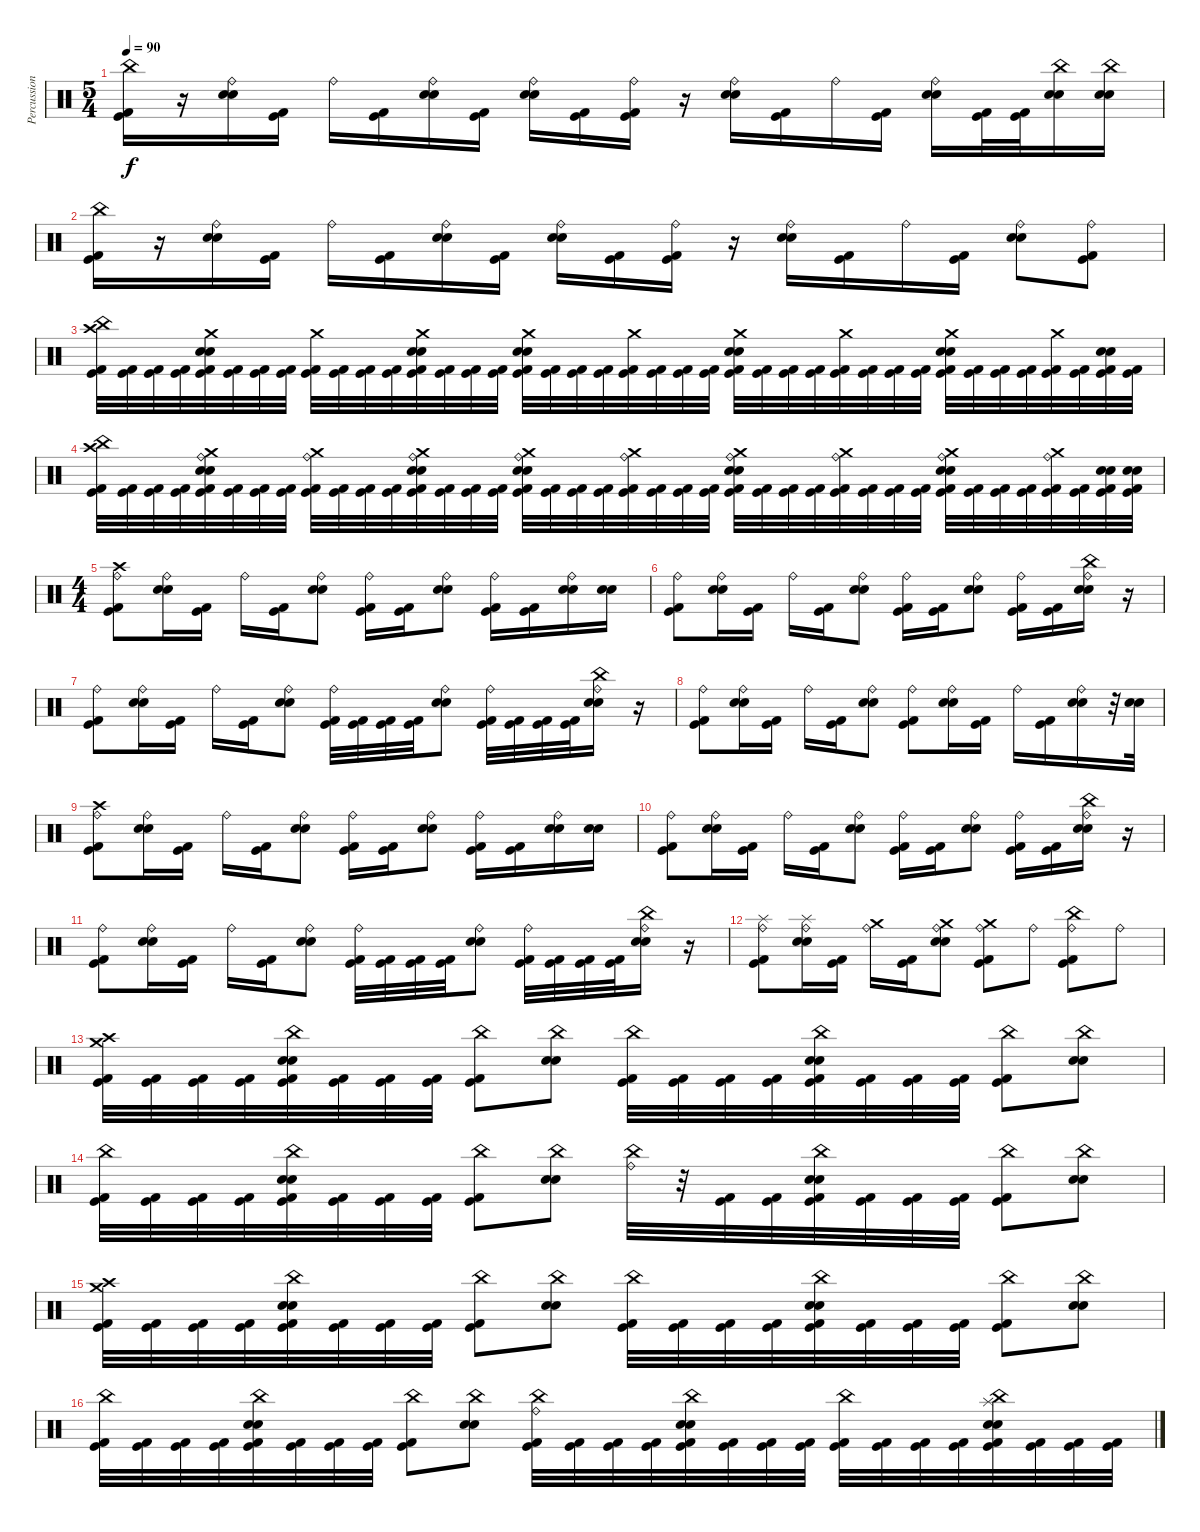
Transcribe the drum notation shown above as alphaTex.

\track ("Percussion" "Percussion") {instrument percussion}
\staff {score}
\articulation defaults
\ts (5 4)
\tempo 90
\clef neutral
\ks c
("China (hit)" "Kick (hit)" "Kick (hit) 2").16{dy f} r.16 ("Ride (bell)" "Electric Snare (hit)" "Snare (hit) 2").16 ("Kick (hit)" "Kick (hit) 2").16 "Ride (bell)".16 ("Kick (hit)" "Kick (hit) 2").16 ("Ride (bell)" "Electric Snare (hit)" "Snare (hit) 2").16 ("Kick (hit)" "Kick (hit) 2").16 ("Ride (bell)" "Electric Snare (hit)" "Snare (hit) 2").16 ("Kick (hit)" "Kick (hit) 2").16 ("Ride (bell)" "Kick (hit)" "Kick (hit) 2").16 r.16 ("Ride (bell)" "Electric Snare (hit)" "Snare (hit) 2").16 ("Kick (hit)" "Kick (hit) 2").16 "Ride (bell)".16 ("Kick (hit)" "Kick (hit) 2").16 ("Ride (bell)" "Electric Snare (hit)" "Snare (hit) 2").16 ("Kick (hit)" "Kick (hit) 2").32 ("Kick (hit)" "Kick (hit) 2").32 ("China (hit)" "Electric Snare (hit)" "Snare (hit) 2").16 ("China (hit)" "Electric Snare (hit)" "Snare (hit) 2").16 |
("China (hit)" "Kick (hit)" "Kick (hit) 2").16 r.16 ("Ride (bell)" "Electric Snare (hit)" "Snare (hit) 2").16 ("Kick (hit)" "Kick (hit) 2").16 "Ride (bell)".16 ("Kick (hit)" "Kick (hit) 2").16 ("Ride (bell)" "Electric Snare (hit)" "Snare (hit) 2").16 ("Kick (hit)" "Kick (hit) 2").16 ("Ride (bell)" "Electric Snare (hit)" "Snare (hit) 2").16 ("Kick (hit)" "Kick (hit) 2").16 ("Ride (bell)" "Kick (hit)" "Kick (hit) 2").16 r.16 ("Ride (bell)" "Electric Snare (hit)" "Snare (hit) 2").16 ("Kick (hit)" "Kick (hit) 2").16 "Ride (bell)".16 ("Kick (hit)" "Kick (hit) 2").16 ("Ride (bell)" "Electric Snare (hit)" "Snare (hit) 2").8 ("Ride (bell)" "Kick (hit)" "Kick (hit) 2").8 |
("Crash high (hit)" "China (hit)" "Kick (hit)" "Kick (hit) 2").32 ("Kick (hit)" "Kick (hit) 2").32 ("Kick (hit)" "Kick (hit) 2").32 ("Kick (hit)" "Kick (hit) 2").32 ("Crash medium (hit)" "Electric Snare (hit)" "Snare (hit) 2" "Kick (hit)" "Kick (hit) 2").32 ("Kick (hit)" "Kick (hit) 2").32 ("Kick (hit)" "Kick (hit) 2").32 ("Kick (hit)" "Kick (hit) 2").32 ("Crash medium (hit)" "Kick (hit)" "Kick (hit) 2").32 ("Kick (hit)" "Kick (hit) 2").32 ("Kick (hit)" "Kick (hit) 2").32 ("Kick (hit)" "Kick (hit) 2").32 ("Crash medium (hit)" "Electric Snare (hit)" "Snare (hit) 2" "Kick (hit)" "Kick (hit) 2").32 ("Kick (hit)" "Kick (hit) 2").32 ("Kick (hit)" "Kick (hit) 2").32 ("Kick (hit)" "Kick (hit) 2").32 ("Crash medium (hit)" "Electric Snare (hit)" "Snare (hit) 2" "Kick (hit)" "Kick (hit) 2").32 ("Kick (hit)" "Kick (hit) 2").32 ("Kick (hit)" "Kick (hit) 2").32 ("Kick (hit)" "Kick (hit) 2").32 ("Crash medium (hit)" "Kick (hit)" "Kick (hit) 2").32 ("Kick (hit)" "Kick (hit) 2").32 ("Kick (hit)" "Kick (hit) 2").32 ("Kick (hit)" "Kick (hit) 2").32 ("Crash medium (hit)" "Electric Snare (hit)" "Snare (hit) 2" "Kick (hit)" "Kick (hit) 2").32 ("Kick (hit)" "Kick (hit) 2").32 ("Kick (hit)" "Kick (hit) 2").32 ("Kick (hit)" "Kick (hit) 2").32 ("Crash medium (hit)" "Kick (hit)" "Kick (hit) 2").32 ("Kick (hit)" "Kick (hit) 2").32 ("Kick (hit)" "Kick (hit) 2").32 ("Kick (hit)" "Kick (hit) 2").32 ("Crash medium (hit)" "Electric Snare (hit)" "Snare (hit) 2" "Kick (hit)" "Kick (hit) 2").32 ("Kick (hit)" "Kick (hit) 2").32 ("Kick (hit)" "Kick (hit) 2").32 ("Kick (hit)" "Kick (hit) 2").32 ("Crash medium (hit)" "Kick (hit)" "Kick (hit) 2").32 ("Kick (hit)" "Kick (hit) 2").32 ("Electric Snare (hit)" "Snare (hit) 2" "Kick (hit)" "Kick (hit) 2").32 ("Kick (hit)" "Kick (hit) 2").32 |
("Crash high (hit)" "China (hit)" "Kick (hit)" "Kick (hit) 2").32 ("Kick (hit)" "Kick (hit) 2").32 ("Kick (hit)" "Kick (hit) 2").32 ("Kick (hit)" "Kick (hit) 2").32 ("Ride (bell)" "Crash medium (hit)" "Electric Snare (hit)" "Snare (hit) 2" "Kick (hit)" "Kick (hit) 2").32 ("Kick (hit)" "Kick (hit) 2").32 ("Kick (hit)" "Kick (hit) 2").32 ("Kick (hit)" "Kick (hit) 2").32 ("Ride (bell)" "Crash medium (hit)" "Kick (hit)" "Kick (hit) 2").32 ("Kick (hit)" "Kick (hit) 2").32 ("Kick (hit)" "Kick (hit) 2").32 ("Kick (hit)" "Kick (hit) 2").32 ("Ride (bell)" "Crash medium (hit)" "Electric Snare (hit)" "Snare (hit) 2" "Kick (hit)" "Kick (hit) 2").32 ("Kick (hit)" "Kick (hit) 2").32 ("Kick (hit)" "Kick (hit) 2").32 ("Kick (hit)" "Kick (hit) 2").32 ("Ride (bell)" "Crash medium (hit)" "Electric Snare (hit)" "Snare (hit) 2" "Kick (hit)" "Kick (hit) 2").32 ("Kick (hit)" "Kick (hit) 2").32 ("Kick (hit)" "Kick (hit) 2").32 ("Kick (hit)" "Kick (hit) 2").32 ("Ride (bell)" "Crash medium (hit)" "Kick (hit)" "Kick (hit) 2").32 ("Kick (hit)" "Kick (hit) 2").32 ("Kick (hit)" "Kick (hit) 2").32 ("Kick (hit)" "Kick (hit) 2").32 ("Ride (bell)" "Crash medium (hit)" "Electric Snare (hit)" "Snare (hit) 2" "Kick (hit)" "Kick (hit) 2").32 ("Kick (hit)" "Kick (hit) 2").32 ("Kick (hit)" "Kick (hit) 2").32 ("Kick (hit)" "Kick (hit) 2").32 ("Ride (bell)" "Crash medium (hit)" "Kick (hit)" "Kick (hit) 2").32 ("Kick (hit)" "Kick (hit) 2").32 ("Kick (hit)" "Kick (hit) 2").32 ("Kick (hit)" "Kick (hit) 2").32 ("Ride (bell)" "Crash medium (hit)" "Electric Snare (hit)" "Snare (hit) 2" "Kick (hit)" "Kick (hit) 2").32 ("Kick (hit)" "Kick (hit) 2").32 ("Kick (hit)" "Kick (hit) 2").32 ("Kick (hit)" "Kick (hit) 2").32 ("Ride (bell)" "Crash medium (hit)" "Kick (hit)" "Kick (hit) 2").32 ("Kick (hit)" "Kick (hit) 2").32 ("Electric Snare (hit)" "Snare (hit) 2" "Kick (hit)" "Kick (hit) 2").32 ("Electric Snare (hit)" "Snare (hit) 2" "Kick (hit)" "Kick (hit) 2").32 |
\ts (4 4)
("Crash high (hit)" "Ride (bell)" "Kick (hit)" "Kick (hit) 2").8 ("Ride (bell)" "Electric Snare (hit)" "Snare (hit) 2").16 ("Kick (hit)" "Kick (hit) 2").16 "Ride (bell)".16 ("Kick (hit)" "Kick (hit) 2").16 ("Ride (bell)" "Electric Snare (hit)" "Snare (hit) 2").8 ("Ride (bell)" "Kick (hit)" "Kick (hit) 2").16 ("Kick (hit)" "Kick (hit) 2").16 ("Ride (bell)" "Electric Snare (hit)" "Snare (hit) 2").8 ("Ride (bell)" "Kick (hit)" "Kick (hit) 2").16 ("Kick (hit)" "Kick (hit) 2").16 ("Ride (bell)" "Electric Snare (hit)" "Snare (hit) 2").16 ("Electric Snare (hit)" "Snare (hit) 2").16 |
("Ride (bell)" "Kick (hit)" "Kick (hit) 2").8 ("Ride (bell)" "Electric Snare (hit)" "Snare (hit) 2").16 ("Kick (hit)" "Kick (hit) 2").16 "Ride (bell)".16 ("Kick (hit)" "Kick (hit) 2").16 ("Ride (bell)" "Electric Snare (hit)" "Snare (hit) 2").8 ("Ride (bell)" "Kick (hit)" "Kick (hit) 2").16 ("Kick (hit)" "Kick (hit) 2").16 ("Ride (bell)" "Electric Snare (hit)" "Snare (hit) 2").8 ("Ride (bell)" "Kick (hit)" "Kick (hit) 2").16 ("Kick (hit)" "Kick (hit) 2").16 ("China (hit)" "Ride (bell)" "Electric Snare (hit)" "Snare (hit) 2").16 r.16 |
("Ride (bell)" "Kick (hit)" "Kick (hit) 2").8 ("Ride (bell)" "Electric Snare (hit)" "Snare (hit) 2").16 ("Kick (hit)" "Kick (hit) 2").16 "Ride (bell)".16 ("Kick (hit)" "Kick (hit) 2").16 ("Ride (bell)" "Electric Snare (hit)" "Snare (hit) 2").8 ("Ride (bell)" "Kick (hit)" "Kick (hit) 2").32 ("Kick (hit)" "Kick (hit) 2").32 ("Kick (hit)" "Kick (hit) 2").32 ("Kick (hit)" "Kick (hit) 2").32 ("Ride (bell)" "Electric Snare (hit)" "Snare (hit) 2").8 ("Ride (bell)" "Kick (hit)" "Kick (hit) 2").32 ("Kick (hit)" "Kick (hit) 2").32 ("Kick (hit)" "Kick (hit) 2").32 ("Kick (hit)" "Kick (hit) 2").32 ("China (hit)" "Ride (bell)" "Electric Snare (hit)" "Snare (hit) 2").16 r.16 |
("Ride (bell)" "Kick (hit)" "Kick (hit) 2").8 ("Ride (bell)" "Electric Snare (hit)" "Snare (hit) 2").16 ("Kick (hit)" "Kick (hit) 2").16 "Ride (bell)".16 ("Kick (hit)" "Kick (hit) 2").16 ("Ride (bell)" "Electric Snare (hit)" "Snare (hit) 2").8 ("Ride (bell)" "Kick (hit)" "Kick (hit) 2").8 ("Ride (bell)" "Electric Snare (hit)" "Snare (hit) 2").16 ("Kick (hit)" "Kick (hit) 2").16 "Ride (bell)".16 ("Kick (hit)" "Kick (hit) 2").16 ("Ride (bell)" "Electric Snare (hit)" "Snare (hit) 2").16 r.32 ("Electric Snare (hit)" "Snare (hit) 2").32 |
("Crash high (hit)" "Ride (bell)" "Kick (hit)" "Kick (hit) 2").8 ("Ride (bell)" "Electric Snare (hit)" "Snare (hit) 2").16 ("Kick (hit)" "Kick (hit) 2").16 "Ride (bell)".16 ("Kick (hit)" "Kick (hit) 2").16 ("Ride (bell)" "Electric Snare (hit)" "Snare (hit) 2").8 ("Ride (bell)" "Kick (hit)" "Kick (hit) 2").16 ("Kick (hit)" "Kick (hit) 2").16 ("Ride (bell)" "Electric Snare (hit)" "Snare (hit) 2").8 ("Ride (bell)" "Kick (hit)" "Kick (hit) 2").16 ("Kick (hit)" "Kick (hit) 2").16 ("Ride (bell)" "Electric Snare (hit)" "Snare (hit) 2").16 ("Electric Snare (hit)" "Snare (hit) 2").16 |
("Ride (bell)" "Kick (hit)" "Kick (hit) 2").8 ("Ride (bell)" "Electric Snare (hit)" "Snare (hit) 2").16 ("Kick (hit)" "Kick (hit) 2").16 "Ride (bell)".16 ("Kick (hit)" "Kick (hit) 2").16 ("Ride (bell)" "Electric Snare (hit)" "Snare (hit) 2").8 ("Ride (bell)" "Kick (hit)" "Kick (hit) 2").16 ("Kick (hit)" "Kick (hit) 2").16 ("Ride (bell)" "Electric Snare (hit)" "Snare (hit) 2").8 ("Ride (bell)" "Kick (hit)" "Kick (hit) 2").16 ("Kick (hit)" "Kick (hit) 2").16 ("China (hit)" "Ride (bell)" "Electric Snare (hit)" "Snare (hit) 2").16 r.16 |
("Ride (bell)" "Kick (hit)" "Kick (hit) 2").8 ("Ride (bell)" "Electric Snare (hit)" "Snare (hit) 2").16 ("Kick (hit)" "Kick (hit) 2").16 "Ride (bell)".16 ("Kick (hit)" "Kick (hit) 2").16 ("Ride (bell)" "Electric Snare (hit)" "Snare (hit) 2").8 ("Ride (bell)" "Kick (hit)" "Kick (hit) 2").32 ("Kick (hit)" "Kick (hit) 2").32 ("Kick (hit)" "Kick (hit) 2").32 ("Kick (hit)" "Kick (hit) 2").32 ("Ride (bell)" "Electric Snare (hit)" "Snare (hit) 2").8 ("Ride (bell)" "Kick (hit)" "Kick (hit) 2").32 ("Kick (hit)" "Kick (hit) 2").32 ("Kick (hit)" "Kick (hit) 2").32 ("Kick (hit)" "Kick (hit) 2").32 ("China (hit)" "Ride (bell)" "Electric Snare (hit)" "Snare (hit) 2").16 r.16 |
("Splash (hit)" "Ride (bell)" "Kick (hit)" "Kick (hit) 2").8 ("Splash (hit)" "Ride (bell)" "Electric Snare (hit)" "Snare (hit) 2").16 ("Kick (hit)" "Kick (hit) 2").16 ("Crash medium (hit)" "Ride (bell)").16 ("Kick (hit)" "Kick (hit) 2").16 ("Crash medium (hit)" "Ride (bell)" "Electric Snare (hit)" "Snare (hit) 2").8 ("Crash medium (hit)" "Ride (bell)" "Kick (hit)" "Kick (hit) 2").8 "Ride (bell)".8 ("China (hit)" "Ride (bell)" "Kick (hit)" "Kick (hit) 2").8 "Ride (bell)".8 |
("Crash medium (hit)" "Crash high (hit)" "Kick (hit)" "Kick (hit) 2").32 ("Kick (hit)" "Kick (hit) 2").32 ("Kick (hit)" "Kick (hit) 2").32 ("Kick (hit)" "Kick (hit) 2").32 ("China (hit)" "Electric Snare (hit)" "Snare (hit) 2" "Kick (hit)" "Kick (hit) 2").32 ("Kick (hit)" "Kick (hit) 2").32 ("Kick (hit)" "Kick (hit) 2").32 ("Kick (hit)" "Kick (hit) 2").32 ("China (hit)" "Kick (hit)" "Kick (hit) 2").8 ("China (hit)" "Electric Snare (hit)" "Snare (hit) 2").8 ("China (hit)" "Kick (hit)" "Kick (hit) 2").32 ("Kick (hit)" "Kick (hit) 2").32 ("Kick (hit)" "Kick (hit) 2").32 ("Kick (hit)" "Kick (hit) 2").32 ("China (hit)" "Electric Snare (hit)" "Snare (hit) 2" "Kick (hit)" "Kick (hit) 2").32 ("Kick (hit)" "Kick (hit) 2").32 ("Kick (hit)" "Kick (hit) 2").32 ("Kick (hit)" "Kick (hit) 2").32 ("China (hit)" "Kick (hit)" "Kick (hit) 2").8 ("China (hit)" "Electric Snare (hit)" "Snare (hit) 2").8 |
("China (hit)" "Kick (hit)" "Kick (hit) 2").32 ("Kick (hit)" "Kick (hit) 2").32 ("Kick (hit)" "Kick (hit) 2").32 ("Kick (hit)" "Kick (hit) 2").32 ("China (hit)" "Electric Snare (hit)" "Snare (hit) 2" "Kick (hit)" "Kick (hit) 2").32 ("Kick (hit)" "Kick (hit) 2").32 ("Kick (hit)" "Kick (hit) 2").32 ("Kick (hit)" "Kick (hit) 2").32 ("China (hit)" "Kick (hit)" "Kick (hit) 2").8 ("China (hit)" "Electric Snare (hit)" "Snare (hit) 2").8 ("Ride (bell)" "China (hit)").32 r.32 ("Kick (hit)" "Kick (hit) 2").32 ("Kick (hit)" "Kick (hit) 2").32 ("China (hit)" "Electric Snare (hit)" "Snare (hit) 2" "Kick (hit)" "Kick (hit) 2").32 ("Kick (hit)" "Kick (hit) 2").32 ("Kick (hit)" "Kick (hit) 2").32 ("Kick (hit)" "Kick (hit) 2").32 ("China (hit)" "Kick (hit)" "Kick (hit) 2").8 ("China (hit)" "Electric Snare (hit)" "Snare (hit) 2").8 |
("Crash medium (hit)" "Crash high (hit)" "Kick (hit)" "Kick (hit) 2").32 ("Kick (hit)" "Kick (hit) 2").32 ("Kick (hit)" "Kick (hit) 2").32 ("Kick (hit)" "Kick (hit) 2").32 ("China (hit)" "Electric Snare (hit)" "Snare (hit) 2" "Kick (hit)" "Kick (hit) 2").32 ("Kick (hit)" "Kick (hit) 2").32 ("Kick (hit)" "Kick (hit) 2").32 ("Kick (hit)" "Kick (hit) 2").32 ("China (hit)" "Kick (hit)" "Kick (hit) 2").8 ("China (hit)" "Electric Snare (hit)" "Snare (hit) 2").8 ("China (hit)" "Kick (hit)" "Kick (hit) 2").32 ("Kick (hit)" "Kick (hit) 2").32 ("Kick (hit)" "Kick (hit) 2").32 ("Kick (hit)" "Kick (hit) 2").32 ("China (hit)" "Electric Snare (hit)" "Snare (hit) 2" "Kick (hit)" "Kick (hit) 2").32 ("Kick (hit)" "Kick (hit) 2").32 ("Kick (hit)" "Kick (hit) 2").32 ("Kick (hit)" "Kick (hit) 2").32 ("China (hit)" "Kick (hit)" "Kick (hit) 2").8 ("China (hit)" "Electric Snare (hit)" "Snare (hit) 2").8 |
("China (hit)" "Kick (hit)" "Kick (hit) 2").32 ("Kick (hit)" "Kick (hit) 2").32 ("Kick (hit)" "Kick (hit) 2").32 ("Kick (hit)" "Kick (hit) 2").32 ("China (hit)" "Electric Snare (hit)" "Snare (hit) 2" "Kick (hit)" "Kick (hit) 2").32 ("Kick (hit)" "Kick (hit) 2").32 ("Kick (hit)" "Kick (hit) 2").32 ("Kick (hit)" "Kick (hit) 2").32 ("China (hit)" "Kick (hit)" "Kick (hit) 2").8 ("China (hit)" "Electric Snare (hit)" "Snare (hit) 2").8 ("Ride (bell)" "China (hit)" "Kick (hit)" "Kick (hit) 2").32 ("Kick (hit)" "Kick (hit) 2").32 ("Kick (hit)" "Kick (hit) 2").32 ("Kick (hit)" "Kick (hit) 2").32 ("China (hit)" "Electric Snare (hit)" "Snare (hit) 2" "Kick (hit)" "Kick (hit) 2").32 ("Kick (hit)" "Kick (hit) 2").32 ("Kick (hit)" "Kick (hit) 2").32 ("Kick (hit)" "Kick (hit) 2").32 ("China (hit)" "Kick (hit)" "Kick (hit) 2").32 ("Kick (hit)" "Kick (hit) 2").32 ("Kick (hit)" "Kick (hit) 2").32 ("Kick (hit)" "Kick (hit) 2").32 ("Splash (hit)" "China (hit)" "Electric Snare (hit)" "Snare (hit) 2" "Kick (hit)" "Kick (hit) 2").32 ("Kick (hit)" "Kick (hit) 2").32 ("Kick (hit)" "Kick (hit) 2").32 ("Kick (hit)" "Kick (hit) 2").32
